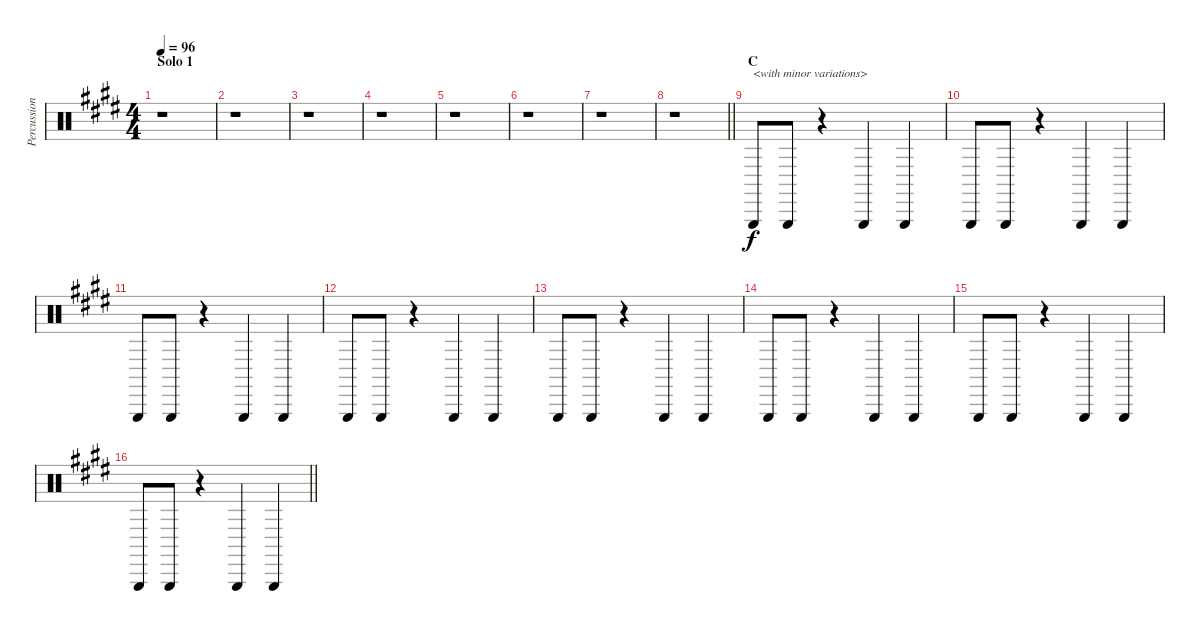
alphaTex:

\track ("Percussion" "Percussion") {instrument percussion}
\staff {score}
\articulation defaults
\ts (4 4)
\section ("" "Solo 1")
\tempo 96
\clef neutral
\ks e
r.1{dy f} |
r.1 |
r.1 |
r.1 |
r.1 |
r.1 |
r.1 |
\barLineRight lightlight
r.1 |
\section ("" "C")
"Triangle (hit)".8{txt "<with minor variations>"} "Triangle (hit)".8 r.4 "Triangle (hit)".4 "Triangle (hit)".4 |
"Triangle (hit)".8 "Triangle (hit)".8 r.4 "Triangle (hit)".4 "Triangle (hit)".4 |
"Triangle (hit)".8 "Triangle (hit)".8 r.4 "Triangle (hit)".4 "Triangle (hit)".4 |
"Triangle (hit)".8 "Triangle (hit)".8 r.4 "Triangle (hit)".4 "Triangle (hit)".4 |
"Triangle (hit)".8 "Triangle (hit)".8 r.4 "Triangle (hit)".4 "Triangle (hit)".4 |
"Triangle (hit)".8 "Triangle (hit)".8 r.4 "Triangle (hit)".4 "Triangle (hit)".4 |
"Triangle (hit)".8 "Triangle (hit)".8 r.4 "Triangle (hit)".4 "Triangle (hit)".4 |
\barLineRight lightlight "Triangle (hit)".8 "Triangle (hit)".8
r.4 "Triangle (hit)".4 "Triangle (hit)".4
